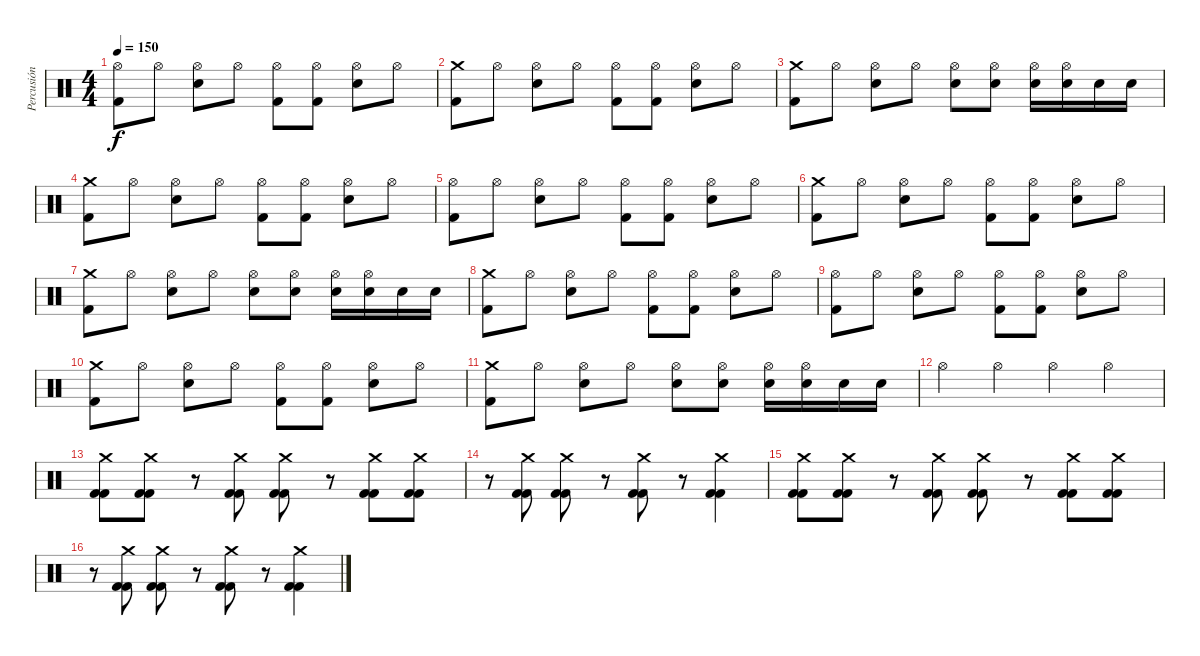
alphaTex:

\track ("Percusión" "Percusión") {instrument percussion}
\staff {score}
\articulation defaults
\ts (4 4)
\tempo 150
\clef neutral
\ks c
("Hi-Hat (open)" "Kick (hit) 2").8{dy f} "Hi-Hat (open)".8 ("Hi-Hat (open)" "Snare (hit) 2").8 "Hi-Hat (open)".8 ("Hi-Hat (open)" "Kick (hit) 2").8 ("Hi-Hat (open)" "Kick (hit) 2").8 ("Hi-Hat (open)" "Snare (hit) 2").8 "Hi-Hat (open)".8 |
("Crash medium (hit)" "Kick (hit) 2").8 "Hi-Hat (open)".8 ("Hi-Hat (open)" "Snare (hit) 2").8 "Hi-Hat (open)".8 ("Hi-Hat (open)" "Kick (hit) 2").8 ("Hi-Hat (open)" "Kick (hit) 2").8 ("Hi-Hat (open)" "Snare (hit) 2").8 "Hi-Hat (open)".8 |
("Crash medium (hit)" "Kick (hit) 2").8 "Hi-Hat (open)".8 ("Hi-Hat (open)" "Snare (hit) 2").8 "Hi-Hat (open)".8 ("Hi-Hat (open)" "Snare (hit) 2").8 ("Hi-Hat (open)" "Snare (hit) 2").8 ("Hi-Hat (open)" "Snare (hit) 2").16 ("Hi-Hat (open)" "Snare (hit) 2").16 "Snare (hit) 2".16 "Snare (hit) 2".16 |
("Crash medium (hit)" "Kick (hit) 2").8 "Hi-Hat (open)".8 ("Hi-Hat (open)" "Snare (hit) 2").8 "Hi-Hat (open)".8 ("Hi-Hat (open)" "Kick (hit) 2").8 ("Hi-Hat (open)" "Kick (hit) 2").8 ("Hi-Hat (open)" "Snare (hit) 2").8 "Hi-Hat (open)".8 |
("Hi-Hat (open)" "Kick (hit) 2").8 "Hi-Hat (open)".8 ("Hi-Hat (open)" "Snare (hit) 2").8 "Hi-Hat (open)".8 ("Hi-Hat (open)" "Kick (hit) 2").8 ("Hi-Hat (open)" "Kick (hit) 2").8 ("Hi-Hat (open)" "Snare (hit) 2").8 "Hi-Hat (open)".8 |
("Crash medium (hit)" "Kick (hit) 2").8 "Hi-Hat (open)".8 ("Hi-Hat (open)" "Snare (hit) 2").8 "Hi-Hat (open)".8 ("Hi-Hat (open)" "Kick (hit) 2").8 ("Hi-Hat (open)" "Kick (hit) 2").8 ("Hi-Hat (open)" "Snare (hit) 2").8 "Hi-Hat (open)".8 |
("Crash medium (hit)" "Kick (hit) 2").8 "Hi-Hat (open)".8 ("Hi-Hat (open)" "Snare (hit) 2").8 "Hi-Hat (open)".8 ("Hi-Hat (open)" "Snare (hit) 2").8 ("Hi-Hat (open)" "Snare (hit) 2").8 ("Hi-Hat (open)" "Snare (hit) 2").16 ("Hi-Hat (open)" "Snare (hit) 2").16 "Snare (hit) 2".16 "Snare (hit) 2".16 |
("Crash medium (hit)" "Kick (hit) 2").8 "Hi-Hat (open)".8 ("Hi-Hat (open)" "Snare (hit) 2").8 "Hi-Hat (open)".8 ("Hi-Hat (open)" "Kick (hit) 2").8 ("Hi-Hat (open)" "Kick (hit) 2").8 ("Hi-Hat (open)" "Snare (hit) 2").8 "Hi-Hat (open)".8 |
("Hi-Hat (open)" "Kick (hit) 2").8 "Hi-Hat (open)".8 ("Hi-Hat (open)" "Snare (hit) 2").8 "Hi-Hat (open)".8 ("Hi-Hat (open)" "Kick (hit) 2").8 ("Hi-Hat (open)" "Kick (hit) 2").8 ("Hi-Hat (open)" "Snare (hit) 2").8 "Hi-Hat (open)".8 |
("Crash medium (hit)" "Kick (hit) 2").8 "Hi-Hat (open)".8 ("Hi-Hat (open)" "Snare (hit) 2").8 "Hi-Hat (open)".8 ("Hi-Hat (open)" "Kick (hit) 2").8 ("Hi-Hat (open)" "Kick (hit) 2").8 ("Hi-Hat (open)" "Snare (hit) 2").8 "Hi-Hat (open)".8 |
("Crash medium (hit)" "Kick (hit) 2").8 "Hi-Hat (open)".8 ("Hi-Hat (open)" "Snare (hit) 2").8 "Hi-Hat (open)".8 ("Hi-Hat (open)" "Snare (hit) 2").8 ("Hi-Hat (open)" "Snare (hit) 2").8 ("Hi-Hat (open)" "Snare (hit) 2").16 ("Hi-Hat (open)" "Snare (hit) 2").16 "Snare (hit) 2".16 "Snare (hit) 2".16 |
"Hi-Hat (open)".4 "Hi-Hat (open)".4 "Hi-Hat (open)".4 "Hi-Hat (open)".4 |
("Crash medium (hit)" "Kick (hit) 2" "Kick (hit) 2").8 ("Crash medium (hit)" "Kick (hit) 2" "Kick (hit) 2").8 r.8 ("Crash medium (hit)" "Kick (hit) 2" "Kick (hit) 2").8 ("Crash medium (hit)" "Kick (hit) 2" "Kick (hit) 2").8 r.8 ("Crash medium (hit)" "Kick (hit) 2" "Kick (hit) 2").8 ("Crash medium (hit)" "Kick (hit) 2" "Kick (hit) 2").8 |
r.8 ("Crash medium (hit)" "Kick (hit) 2" "Kick (hit) 2").8 ("Crash medium (hit)" "Kick (hit) 2" "Kick (hit) 2").8 r.8 ("Crash medium (hit)" "Kick (hit) 2" "Kick (hit) 2").8 r.8 ("Crash medium (hit)" "Kick (hit) 2" "Kick (hit) 2").4 |
("Crash medium (hit)" "Kick (hit) 2" "Kick (hit) 2").8 ("Crash medium (hit)" "Kick (hit) 2" "Kick (hit) 2").8 r.8 ("Crash medium (hit)" "Kick (hit) 2" "Kick (hit) 2").8 ("Crash medium (hit)" "Kick (hit) 2" "Kick (hit) 2").8 r.8 ("Crash medium (hit)" "Kick (hit) 2" "Kick (hit) 2").8 ("Crash medium (hit)" "Kick (hit) 2" "Kick (hit) 2").8 |
r.8 ("Crash medium (hit)" "Kick (hit) 2" "Kick (hit) 2").8 ("Crash medium (hit)" "Kick (hit) 2" "Kick (hit) 2").8 r.8 ("Crash medium (hit)" "Kick (hit) 2" "Kick (hit) 2").8 r.8 ("Crash medium (hit)" "Kick (hit) 2" "Kick (hit) 2").4
